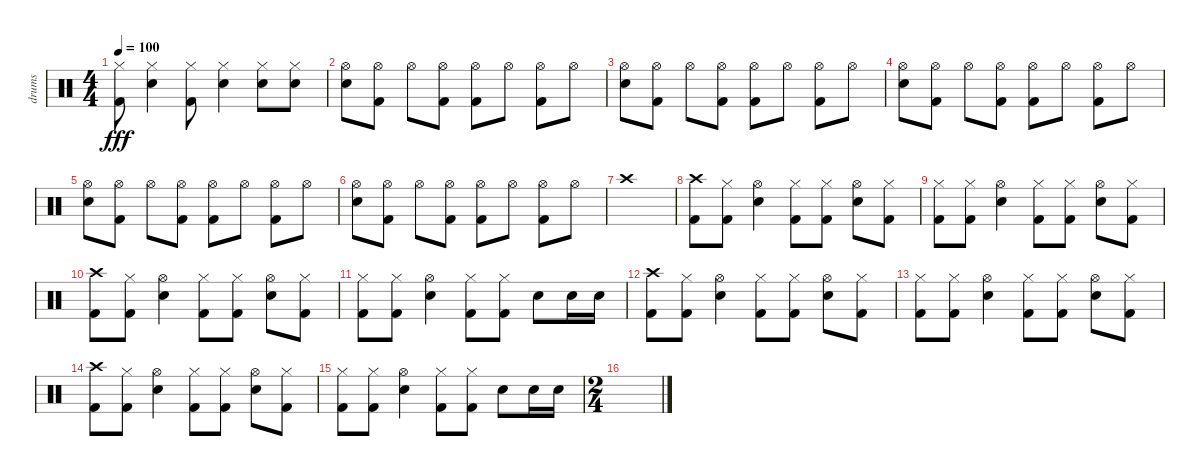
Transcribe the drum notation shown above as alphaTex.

\track ("drums" "drums") {instrument percussion}
\staff {score}
\articulation defaults
\ts (4 4)
\tempo 100
\clef neutral
\ks c
("Hi-Hat (closed)" "Kick (hit) 2").8{dy fff} ("Hi-Hat (closed)" "Electric Snare (hit)").4 ("Hi-Hat (closed)" "Kick (hit) 2").8 ("Hi-Hat (closed)" "Electric Snare (hit)").4 ("Hi-Hat (closed)" "Electric Snare (hit)").8 ("Hi-Hat (closed)" "Electric Snare (hit)").8 |
("Hi-Hat (open)" "Electric Snare (hit)").8 ("Hi-Hat (open)" "Kick (hit) 2").8 "Hi-Hat (open)".8 ("Hi-Hat (open)" "Kick (hit) 2").8 ("Hi-Hat (open)" "Kick (hit) 2").8 "Hi-Hat (open)".8 ("Hi-Hat (open)" "Kick (hit) 2").8 "Hi-Hat (open)".8 |
("Hi-Hat (open)" "Electric Snare (hit)").8 ("Hi-Hat (open)" "Kick (hit) 2").8 "Hi-Hat (open)".8 ("Hi-Hat (open)" "Kick (hit) 2").8 ("Hi-Hat (open)" "Kick (hit) 2").8 "Hi-Hat (open)".8 ("Hi-Hat (open)" "Kick (hit) 2").8 "Hi-Hat (open)".8 |
("Hi-Hat (open)" "Electric Snare (hit)").8 ("Hi-Hat (open)" "Kick (hit) 2").8 "Hi-Hat (open)".8 ("Hi-Hat (open)" "Kick (hit) 2").8 ("Hi-Hat (open)" "Kick (hit) 2").8 "Hi-Hat (open)".8 ("Hi-Hat (open)" "Kick (hit) 2").8 "Hi-Hat (open)".8 |
("Hi-Hat (open)" "Electric Snare (hit)").8 ("Hi-Hat (open)" "Kick (hit) 2").8 "Hi-Hat (open)".8 ("Hi-Hat (open)" "Kick (hit) 2").8 ("Hi-Hat (open)" "Kick (hit) 2").8 "Hi-Hat (open)".8 ("Hi-Hat (open)" "Kick (hit) 2").8 "Hi-Hat (open)".8 |
("Hi-Hat (open)" "Electric Snare (hit)").8 ("Hi-Hat (open)" "Kick (hit) 2").8 "Hi-Hat (open)".8 ("Hi-Hat (open)" "Kick (hit) 2").8 ("Hi-Hat (open)" "Kick (hit) 2").8 "Hi-Hat (open)".8 ("Hi-Hat (open)" "Kick (hit) 2").8 "Hi-Hat (open)".8 |
"Crash high (hit)".1 |
("Crash high (hit)" "Kick (hit) 2").8 ("Hi-Hat (closed)" "Kick (hit) 2").8 ("Hi-Hat (open)" "Electric Snare (hit)").4 ("Hi-Hat (closed)" "Kick (hit) 2").8 ("Hi-Hat (closed)" "Kick (hit) 2").8 ("Hi-Hat (open)" "Electric Snare (hit)").8 ("Hi-Hat (closed)" "Kick (hit) 2").8 |
("Hi-Hat (closed)" "Kick (hit) 2").8 ("Hi-Hat (closed)" "Kick (hit) 2").8 ("Hi-Hat (open)" "Electric Snare (hit)").4 ("Hi-Hat (closed)" "Kick (hit) 2").8 ("Hi-Hat (closed)" "Kick (hit) 2").8 ("Hi-Hat (open)" "Electric Snare (hit)").8 ("Hi-Hat (closed)" "Kick (hit) 2").8 |
("Crash high (hit)" "Kick (hit) 2").8 ("Hi-Hat (closed)" "Kick (hit) 2").8 ("Hi-Hat (open)" "Electric Snare (hit)").4 ("Hi-Hat (closed)" "Kick (hit) 2").8 ("Hi-Hat (closed)" "Kick (hit) 2").8 ("Hi-Hat (open)" "Electric Snare (hit)").8 ("Hi-Hat (closed)" "Kick (hit) 2").8 |
("Hi-Hat (closed)" "Kick (hit) 2").8 ("Hi-Hat (closed)" "Kick (hit) 2").8 ("Hi-Hat (open)" "Electric Snare (hit)").4 ("Hi-Hat (closed)" "Kick (hit) 2").8 ("Hi-Hat (closed)" "Kick (hit) 2").8 "Electric Snare (hit)".8 "Electric Snare (hit)".16 "Electric Snare (hit)".16 |
("Crash high (hit)" "Kick (hit) 2").8 ("Hi-Hat (closed)" "Kick (hit) 2").8 ("Hi-Hat (open)" "Electric Snare (hit)").4 ("Hi-Hat (closed)" "Kick (hit) 2").8 ("Hi-Hat (closed)" "Kick (hit) 2").8 ("Hi-Hat (open)" "Electric Snare (hit)").8 ("Hi-Hat (closed)" "Kick (hit) 2").8 |
("Hi-Hat (closed)" "Kick (hit) 2").8 ("Hi-Hat (closed)" "Kick (hit) 2").8 ("Hi-Hat (open)" "Electric Snare (hit)").4 ("Hi-Hat (closed)" "Kick (hit) 2").8 ("Hi-Hat (closed)" "Kick (hit) 2").8 ("Hi-Hat (open)" "Electric Snare (hit)").8 ("Hi-Hat (closed)" "Kick (hit) 2").8 |
("Crash high (hit)" "Kick (hit) 2").8 ("Hi-Hat (closed)" "Kick (hit) 2").8 ("Hi-Hat (open)" "Electric Snare (hit)").4 ("Hi-Hat (closed)" "Kick (hit) 2").8 ("Hi-Hat (closed)" "Kick (hit) 2").8 ("Hi-Hat (open)" "Electric Snare (hit)").8 ("Hi-Hat (closed)" "Kick (hit) 2").8 |
("Hi-Hat (closed)" "Kick (hit) 2").8 ("Hi-Hat (closed)" "Kick (hit) 2").8 ("Hi-Hat (open)" "Electric Snare (hit)").4 ("Hi-Hat (closed)" "Kick (hit) 2").8 ("Hi-Hat (closed)" "Kick (hit) 2").8 "Electric Snare (hit)".8 "Electric Snare (hit)".16 "Electric Snare (hit)".16 |
\ts (2 4)
